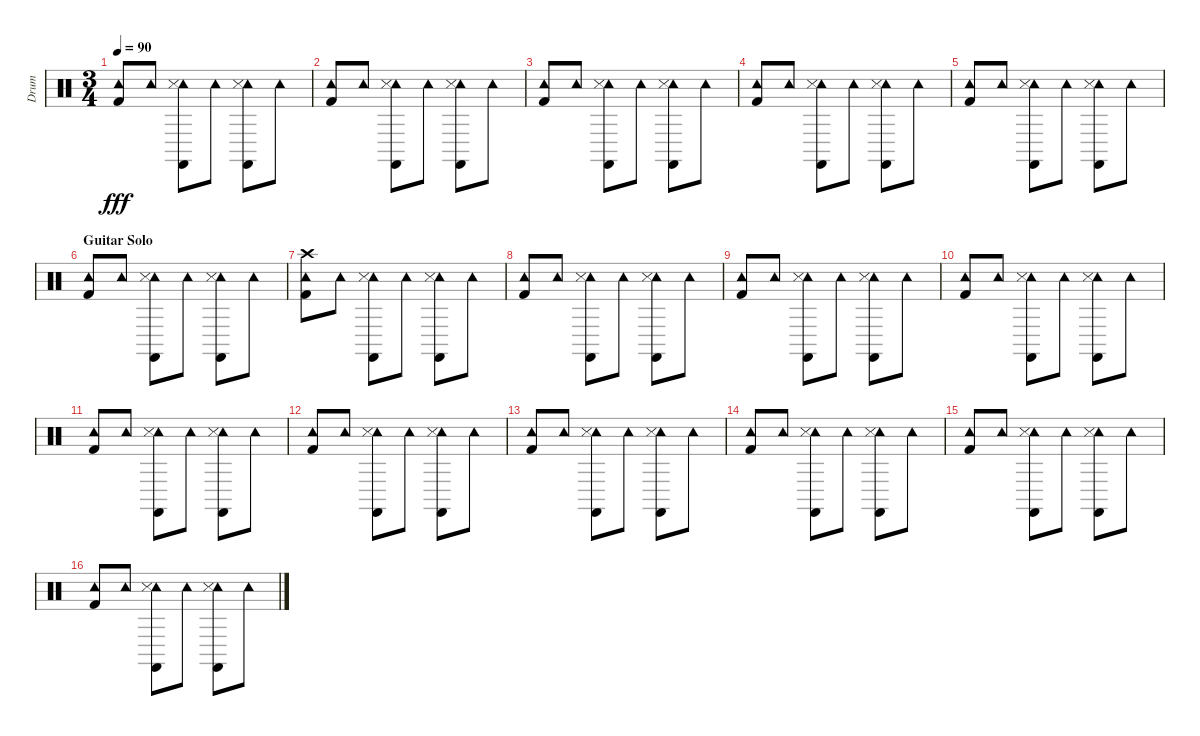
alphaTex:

\track ("Drum" "Drum") {instrument percussion}
\staff {score}
\articulation defaults
\ts (3 4)
\tempo 90
\clef neutral
\ks c
("Kick (hit) 2" "Tambourine (hit)").8{dy fff} "Tambourine (hit)".8 ("Castanets (hit)" "Tambourine (hit)" "Snare (side stick) 3").8 "Tambourine (hit)".8 ("Castanets (hit)" "Tambourine (hit)" "Snare (side stick) 3").8 "Tambourine (hit)".8 |
("Kick (hit) 2" "Tambourine (hit)").8 "Tambourine (hit)".8 ("Castanets (hit)" "Tambourine (hit)" "Snare (side stick) 3").8 "Tambourine (hit)".8 ("Castanets (hit)" "Tambourine (hit)" "Snare (side stick) 3").8 "Tambourine (hit)".8 |
("Kick (hit) 2" "Tambourine (hit)").8 "Tambourine (hit)".8 ("Castanets (hit)" "Tambourine (hit)" "Snare (side stick) 3").8 "Tambourine (hit)".8 ("Castanets (hit)" "Tambourine (hit)" "Snare (side stick) 3").8 "Tambourine (hit)".8 |
("Kick (hit) 2" "Tambourine (hit)").8 "Tambourine (hit)".8 ("Castanets (hit)" "Tambourine (hit)" "Snare (side stick) 3").8 "Tambourine (hit)".8 ("Castanets (hit)" "Tambourine (hit)" "Snare (side stick) 3").8 "Tambourine (hit)".8 |
("Kick (hit) 2" "Tambourine (hit)").8 "Tambourine (hit)".8 ("Castanets (hit)" "Tambourine (hit)" "Snare (side stick) 3").8 "Tambourine (hit)".8 ("Castanets (hit)" "Tambourine (hit)" "Snare (side stick) 3").8 "Tambourine (hit)".8 |
\section ("" "Guitar Solo")
("Kick (hit) 2" "Tambourine (hit)").8 "Tambourine (hit)".8 ("Castanets (hit)" "Tambourine (hit)" "Snare (side stick) 3").8 "Tambourine (hit)".8 ("Castanets (hit)" "Tambourine (hit)" "Snare (side stick) 3").8 "Tambourine (hit)".8 |
("Kick (hit) 2" "Crash high (hit)" "Tambourine (hit)").8 "Tambourine (hit)".8 ("Castanets (hit)" "Tambourine (hit)" "Snare (side stick) 3").8 "Tambourine (hit)".8 ("Castanets (hit)" "Tambourine (hit)" "Snare (side stick) 3").8 "Tambourine (hit)".8 |
("Kick (hit) 2" "Tambourine (hit)").8 "Tambourine (hit)".8 ("Castanets (hit)" "Tambourine (hit)" "Snare (side stick) 3").8 "Tambourine (hit)".8 ("Castanets (hit)" "Tambourine (hit)" "Snare (side stick) 3").8 "Tambourine (hit)".8 |
("Kick (hit) 2" "Tambourine (hit)").8 "Tambourine (hit)".8 ("Castanets (hit)" "Tambourine (hit)" "Snare (side stick) 3").8 "Tambourine (hit)".8 ("Castanets (hit)" "Tambourine (hit)" "Snare (side stick) 3").8 "Tambourine (hit)".8 |
("Kick (hit) 2" "Tambourine (hit)").8 "Tambourine (hit)".8 ("Castanets (hit)" "Tambourine (hit)" "Snare (side stick) 3").8 "Tambourine (hit)".8 ("Castanets (hit)" "Tambourine (hit)" "Snare (side stick) 3").8 "Tambourine (hit)".8 |
("Kick (hit) 2" "Tambourine (hit)").8 "Tambourine (hit)".8 ("Castanets (hit)" "Tambourine (hit)" "Snare (side stick) 3").8 "Tambourine (hit)".8 ("Castanets (hit)" "Tambourine (hit)" "Snare (side stick) 3").8 "Tambourine (hit)".8 |
("Kick (hit) 2" "Tambourine (hit)").8 "Tambourine (hit)".8 ("Castanets (hit)" "Tambourine (hit)" "Snare (side stick) 3").8 "Tambourine (hit)".8 ("Castanets (hit)" "Tambourine (hit)" "Snare (side stick) 3").8 "Tambourine (hit)".8 |
("Kick (hit) 2" "Tambourine (hit)").8 "Tambourine (hit)".8 ("Castanets (hit)" "Tambourine (hit)" "Snare (side stick) 3").8 "Tambourine (hit)".8 ("Castanets (hit)" "Tambourine (hit)" "Snare (side stick) 3").8 "Tambourine (hit)".8 |
("Kick (hit) 2" "Tambourine (hit)").8 "Tambourine (hit)".8 ("Castanets (hit)" "Tambourine (hit)" "Snare (side stick) 3").8 "Tambourine (hit)".8 ("Castanets (hit)" "Tambourine (hit)" "Snare (side stick) 3").8 "Tambourine (hit)".8 |
("Kick (hit) 2" "Tambourine (hit)").8 "Tambourine (hit)".8 ("Castanets (hit)" "Tambourine (hit)" "Snare (side stick) 3").8 "Tambourine (hit)".8 ("Castanets (hit)" "Tambourine (hit)" "Snare (side stick) 3").8 "Tambourine (hit)".8 |
("Kick (hit) 2" "Tambourine (hit)").8 "Tambourine (hit)".8 ("Castanets (hit)" "Tambourine (hit)" "Snare (side stick) 3").8 "Tambourine (hit)".8 ("Castanets (hit)" "Tambourine (hit)" "Snare (side stick) 3").8 "Tambourine (hit)".8
